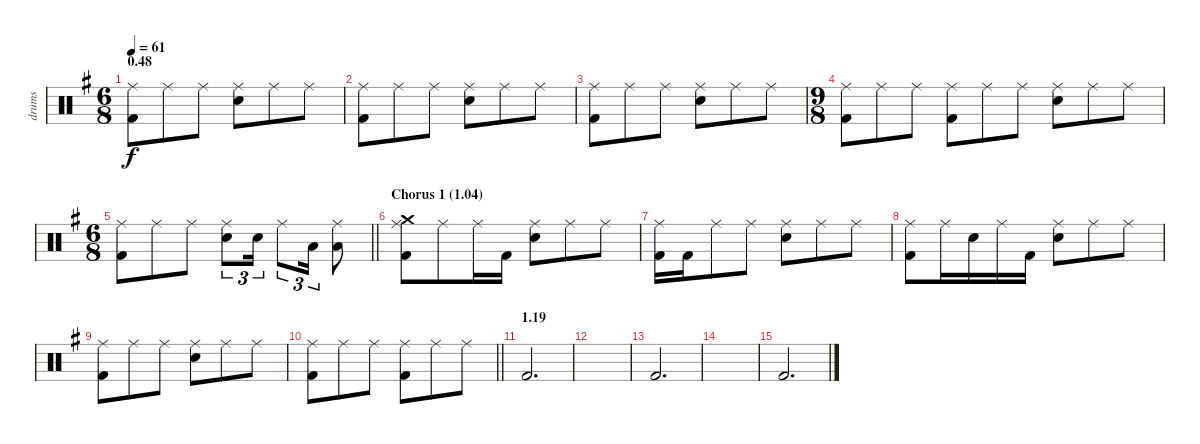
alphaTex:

\track ("drums" "drums") {instrument percussion}
\staff {score}
\articulation defaults
\ts (6 8)
\section ("" "0.48")
\tempo 61
\clef neutral
\ks g
("Ride (middle)" "Kick (hit) 2").8{dy f} "Ride (middle)".8 "Ride (middle)".8 ("Ride (middle)" "Electric Snare (hit)").8 "Ride (middle)".8 "Ride (middle)".8 |
("Ride (middle)" "Kick (hit) 2").8 "Ride (middle)".8 "Ride (middle)".8 ("Ride (middle)" "Electric Snare (hit)").8 "Ride (middle)".8 "Ride (middle)".8 |
("Ride (middle)" "Kick (hit) 2").8 "Ride (middle)".8 "Ride (middle)".8 ("Ride (middle)" "Electric Snare (hit)").8 "Ride (middle)".8 "Ride (middle)".8 |
\ts (9 8)
("Ride (middle)" "Kick (hit) 2").8 "Ride (middle)".8 "Ride (middle)".8 ("Ride (middle)" "Kick (hit) 2").8 "Ride (middle)".8 "Ride (middle)".8 ("Ride (middle)" "Electric Snare (hit)").8 "Ride (middle)".8 "Ride (middle)".8 |
\ts (6 8)
\barLineRight lightlight
("Ride (middle)" "Kick (hit) 2").8 "Ride (middle)".8 "Ride (middle)".8 ("Ride (middle)" "Electric Snare (hit)").8{tu (3 2)} "Electric Snare (hit)".16{tu (3 2)} "Ride (middle)".8{tu (3 2)} "Low Tom (hit)".16{tu (3 2)} ("Ride (middle)" "Low Tom (hit)").8 |
\section ("" "Chorus 1 (1.04)")
("Ride (middle)" "Crash medium (hit)" "Kick (hit) 2").8 "Ride (middle)".8 "Ride (middle)".16 "Kick (hit) 2".16 ("Ride (middle)" "Electric Snare (hit)").8 "Ride (middle)".8 "Ride (middle)".8 |
("Ride (middle)" "Kick (hit) 2").16 "Kick (hit) 2".16 "Ride (middle)".8 "Ride (middle)".8 ("Ride (middle)" "Electric Snare (hit)").8 "Ride (middle)".8 "Ride (middle)".8 |
("Ride (middle)" "Kick (hit) 2").8 "Ride (middle)".16 "Electric Snare (hit)".16 "Ride (middle)".16 "Kick (hit) 2".16 ("Ride (middle)" "Electric Snare (hit)").8 "Ride (middle)".8 "Ride (middle)".8 |
("Ride (middle)" "Kick (hit) 2").8 "Ride (middle)".8 "Ride (middle)".8 ("Ride (middle)" "Electric Snare (hit)").8 "Ride (middle)".8 "Ride (middle)".8 |
\barLineRight lightlight
("Ride (middle)" "Kick (hit) 2").8 "Ride (middle)".8 "Ride (middle)".8 ("Ride (middle)" "Kick (hit) 2").8 "Ride (middle)".8 "Ride (middle)".8 |
\section ("" "1.19")
"Kick (hit) 2".2{d} |
|
"Kick (hit) 2".2{d} |
|
"Kick (hit) 2".2{d}
